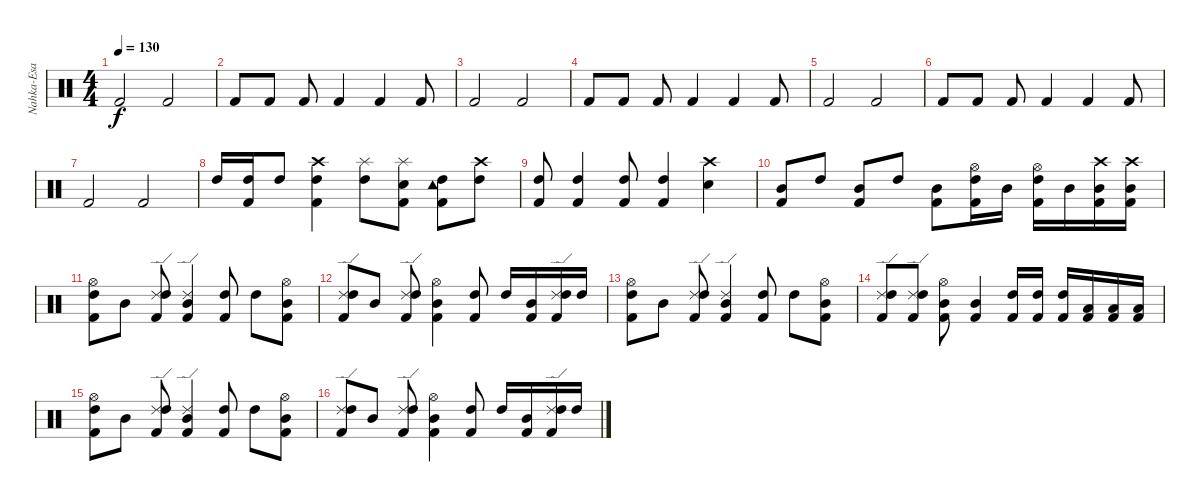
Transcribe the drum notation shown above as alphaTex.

\track ("Nahka-Esa" "Nahka-Esa") {instrument percussion}
\staff {score}
\articulation defaults
\ts (4 4)
\tempo 130
\clef neutral
\ks c "Kick (hit) 2".2{dy f} "Kick (hit) 2".2
|
"Kick (hit) 2".8 "Kick (hit) 2".8 "Kick (hit) 2".8 "Kick (hit) 2".4 "Kick (hit) 2".4 "Kick (hit) 2".8 |
"Kick (hit) 2".2 "Kick (hit) 2".2 |
"Kick (hit) 2".8 "Kick (hit) 2".8 "Kick (hit) 2".8 "Kick (hit) 2".4 "Kick (hit) 2".4 "Kick (hit) 2".8 |
"Kick (hit) 2".2 "Kick (hit) 2".2 |
"Kick (hit) 2".8 "Kick (hit) 2".8 "Kick (hit) 2".8 "Kick (hit) 2".4 "Kick (hit) 2".4 "Kick (hit) 2".8 |
"Kick (hit) 2".2 "Kick (hit) 2".2 |
"High Tom (hit)".16 ("High Tom (hit)" "Kick (hit) 2").16 "High Tom (hit)".8 ("Crash high (hit)" "High Tom (hit)" "Kick (hit) 2").4 ("Splash (hit)" "High Tom (hit)").8 ("Splash (hit)" "Snare (hit)" "Kick (hit) 2").8 ("Tambourine (hit)" "High Tom (hit)" "Kick (hit) 2").8 ("Crash high (hit)" "High Tom (hit)").8 |
("High Tom (hit)" "Kick (hit) 2").8 ("High Tom (hit)" "Kick (hit) 2").4 ("High Tom (hit)" "Kick (hit) 2").8 ("High Tom (hit)" "Kick (hit) 2").4 ("Snare (hit)" "Crash high (hit)").4 |
("Mid Tom (hit)" "Kick (hit) 2").8 "High Tom (hit)".8 ("Mid Tom (hit)" "Kick (hit) 2").8 "High Tom (hit)".8 ("Mid Tom (hit)" "Kick (hit) 2").8 ("Hi-Hat (open)" "High Tom (hit)" "Kick (hit) 2").16 "Mid Tom (hit)".16 ("Hi-Hat (open)" "High Tom (hit)" "Kick (hit) 2").16 "Mid Tom (hit)".16 ("Crash high (hit)" "Mid Tom (hit)" "Kick (hit) 2").16 ("Crash high (hit)" "Mid Tom (hit)" "Kick (hit) 2").16 |
("Hi-Hat (open)" "High Tom (hit)" "Kick (hit) 2").8 "Mid Tom (hit)".8 ("Ride (edge) 2" "High Tom (hit)" "Kick (hit) 2").8 ("Ride (edge) 2" "Mid Tom (hit)" "Kick (hit) 2").4 ("High Tom (hit)" "Kick (hit) 2").8 "High Tom (hit)".8 ("Hi-Hat (open)" "Mid Tom (hit)" "Kick (hit) 2").8 |
("Ride (edge) 2" "High Tom (hit)" "Kick (hit) 2").8 "Mid Tom (hit)".8 ("Ride (edge) 2" "High Tom (hit)" "Kick (hit) 2").8 ("Hi-Hat (open)" "Mid Tom (hit)" "Kick (hit) 2").4 ("High Tom (hit)" "Kick (hit) 2").8 "High Tom (hit)".16 ("Mid Tom (hit)" "Kick (hit) 2").16 ("Ride (edge) 2" "High Tom (hit)" "Kick (hit) 2").16 "High Tom (hit)".16 |
("Hi-Hat (open)" "High Tom (hit)" "Kick (hit) 2").8 "Mid Tom (hit)".8 ("Ride (edge) 2" "High Tom (hit)" "Kick (hit) 2").8 ("Ride (edge) 2" "Mid Tom (hit)" "Kick (hit) 2").4 ("High Tom (hit)" "Kick (hit) 2").8 "High Tom (hit)".8 ("Hi-Hat (open)" "Mid Tom (hit)" "Kick (hit) 2").8 |
("Ride (edge) 2" "High Tom (hit)" "Kick (hit) 2").8 ("Ride (edge) 2" "High Tom (hit)" "Kick (hit) 2").8 ("Hi-Hat (open)" "Mid Tom (hit)" "Kick (hit) 2").8 ("Mid Tom (hit)" "Kick (hit) 2").4 ("High Tom (hit)" "Kick (hit) 2").16 ("High Tom (hit)" "Kick (hit) 2").16 ("High Tom (hit)" "Kick (hit) 2").16 ("Low Tom (hit)" "Kick (hit) 2").16 ("Low Tom (hit)" "Kick (hit) 2").16 ("Low Tom (hit)" "Kick (hit) 2").16 |
("Hi-Hat (open)" "High Tom (hit)" "Kick (hit) 2").8 "Mid Tom (hit)".8 ("Ride (edge) 2" "High Tom (hit)" "Kick (hit) 2").8 ("Ride (edge) 2" "Mid Tom (hit)" "Kick (hit) 2").4 ("High Tom (hit)" "Kick (hit) 2").8 "High Tom (hit)".8 ("Hi-Hat (open)" "Mid Tom (hit)" "Kick (hit) 2").8 |
("Ride (edge) 2" "High Tom (hit)" "Kick (hit) 2").8 "Mid Tom (hit)".8 ("Ride (edge) 2" "High Tom (hit)" "Kick (hit) 2").8 ("Hi-Hat (open)" "Mid Tom (hit)" "Kick (hit) 2").4 ("High Tom (hit)" "Kick (hit) 2").8 "High Tom (hit)".16 ("Mid Tom (hit)" "Kick (hit) 2").16 ("Ride (edge) 2" "High Tom (hit)" "Kick (hit) 2").16 "High Tom (hit)".16
